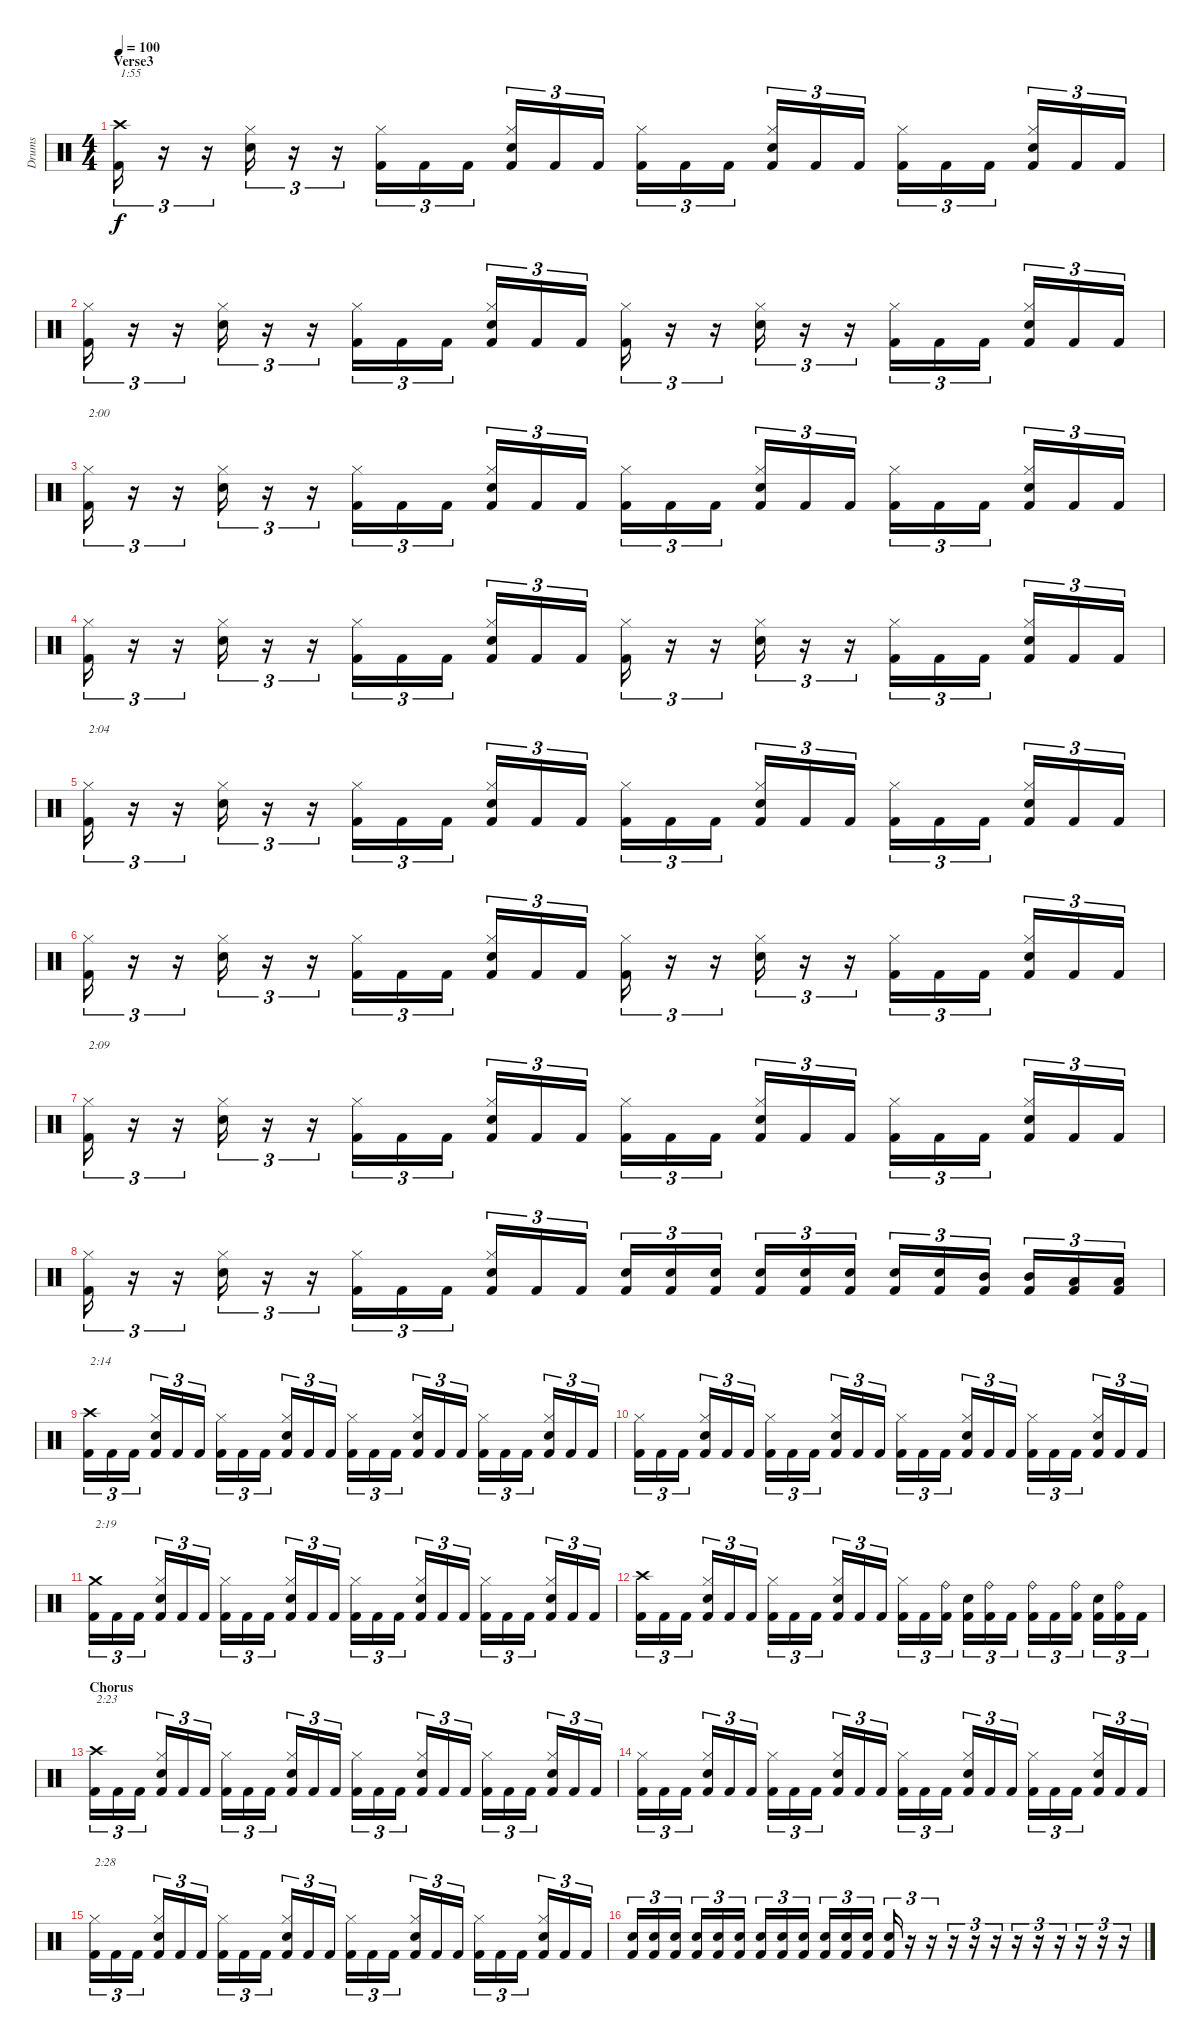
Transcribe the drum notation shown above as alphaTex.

\track ("Drums" "Drums") {instrument percussion}
\staff {score}
\articulation defaults
\ts (4 4)
\section ("" "Verse3")
\tempo 100
\clef neutral
\ks c
("Crash high (hit)" "Kick (hit) 2").16{tu (3 2) txt "1:55" dy f} r.16{tu (3 2)} r.16{tu (3 2)} ("Hi-Hat (closed)" "Snare (hit) 2").16{tu (3 2)} r.16{tu (3 2)} r.16{tu (3 2)} ("Hi-Hat (closed)" "Kick (hit) 2").16{tu (3 2)} "Kick (hit) 2".16{tu (3 2)} "Kick (hit) 2".16{tu (3 2)} ("Hi-Hat (closed)" "Snare (hit) 2" "Kick (hit) 2").16{tu (3 2)} "Kick (hit) 2".16{tu (3 2)} "Kick (hit) 2".16{tu (3 2)} ("Hi-Hat (closed)" "Kick (hit) 2").16{tu (3 2)} "Kick (hit) 2".16{tu (3 2)} "Kick (hit) 2".16{tu (3 2)} ("Hi-Hat (closed)" "Snare (hit) 2" "Kick (hit) 2").16{tu (3 2)} "Kick (hit) 2".16{tu (3 2)} "Kick (hit) 2".16{tu (3 2)} ("Hi-Hat (closed)" "Kick (hit) 2").16{tu (3 2)} "Kick (hit) 2".16{tu (3 2)} "Kick (hit) 2".16{tu (3 2)} ("Hi-Hat (closed)" "Snare (hit) 2" "Kick (hit) 2").16{tu (3 2)} "Kick (hit) 2".16{tu (3 2)} "Kick (hit) 2".16{tu (3 2)} |
("Hi-Hat (closed)" "Kick (hit) 2").16{tu (3 2)} r.16{tu (3 2)} r.16{tu (3 2)} ("Hi-Hat (closed)" "Snare (hit) 2").16{tu (3 2)} r.16{tu (3 2)} r.16{tu (3 2)} ("Hi-Hat (closed)" "Kick (hit) 2").16{tu (3 2)} "Kick (hit) 2".16{tu (3 2)} "Kick (hit) 2".16{tu (3 2)} ("Hi-Hat (closed)" "Snare (hit) 2" "Kick (hit) 2").16{tu (3 2)} "Kick (hit) 2".16{tu (3 2)} "Kick (hit) 2".16{tu (3 2)} ("Hi-Hat (closed)" "Kick (hit) 2").16{tu (3 2)} r.16{tu (3 2)} r.16{tu (3 2)} ("Hi-Hat (closed)" "Snare (hit) 2").16{tu (3 2)} r.16{tu (3 2)} r.16{tu (3 2)} ("Hi-Hat (closed)" "Kick (hit) 2").16{tu (3 2)} "Kick (hit) 2".16{tu (3 2)} "Kick (hit) 2".16{tu (3 2)} ("Hi-Hat (closed)" "Snare (hit) 2" "Kick (hit) 2").16{tu (3 2)} "Kick (hit) 2".16{tu (3 2)} "Kick (hit) 2".16{tu (3 2)} |
("Hi-Hat (closed)" "Kick (hit) 2").16{tu (3 2) txt "2:00"} r.16{tu (3 2)} r.16{tu (3 2)} ("Hi-Hat (closed)" "Snare (hit) 2").16{tu (3 2)} r.16{tu (3 2)} r.16{tu (3 2)} ("Hi-Hat (closed)" "Kick (hit) 2").16{tu (3 2)} "Kick (hit) 2".16{tu (3 2)} "Kick (hit) 2".16{tu (3 2)} ("Hi-Hat (closed)" "Snare (hit) 2" "Kick (hit) 2").16{tu (3 2)} "Kick (hit) 2".16{tu (3 2)} "Kick (hit) 2".16{tu (3 2)} ("Hi-Hat (closed)" "Kick (hit) 2").16{tu (3 2)} "Kick (hit) 2".16{tu (3 2)} "Kick (hit) 2".16{tu (3 2)} ("Hi-Hat (closed)" "Snare (hit) 2" "Kick (hit) 2").16{tu (3 2)} "Kick (hit) 2".16{tu (3 2)} "Kick (hit) 2".16{tu (3 2)} ("Hi-Hat (closed)" "Kick (hit) 2").16{tu (3 2)} "Kick (hit) 2".16{tu (3 2)} "Kick (hit) 2".16{tu (3 2)} ("Hi-Hat (closed)" "Snare (hit) 2" "Kick (hit) 2").16{tu (3 2)} "Kick (hit) 2".16{tu (3 2)} "Kick (hit) 2".16{tu (3 2)} |
("Hi-Hat (closed)" "Kick (hit) 2").16{tu (3 2)} r.16{tu (3 2)} r.16{tu (3 2)} ("Hi-Hat (closed)" "Snare (hit) 2").16{tu (3 2)} r.16{tu (3 2)} r.16{tu (3 2)} ("Hi-Hat (closed)" "Kick (hit) 2").16{tu (3 2)} "Kick (hit) 2".16{tu (3 2)} "Kick (hit) 2".16{tu (3 2)} ("Hi-Hat (closed)" "Snare (hit) 2" "Kick (hit) 2").16{tu (3 2)} "Kick (hit) 2".16{tu (3 2)} "Kick (hit) 2".16{tu (3 2)} ("Hi-Hat (closed)" "Kick (hit) 2").16{tu (3 2)} r.16{tu (3 2)} r.16{tu (3 2)} ("Hi-Hat (closed)" "Snare (hit) 2").16{tu (3 2)} r.16{tu (3 2)} r.16{tu (3 2)} ("Hi-Hat (closed)" "Kick (hit) 2").16{tu (3 2)} "Kick (hit) 2".16{tu (3 2)} "Kick (hit) 2".16{tu (3 2)} ("Hi-Hat (closed)" "Snare (hit) 2" "Kick (hit) 2").16{tu (3 2)} "Kick (hit) 2".16{tu (3 2)} "Kick (hit) 2".16{tu (3 2)} |
("Hi-Hat (closed)" "Kick (hit) 2").16{tu (3 2) txt "2:04"} r.16{tu (3 2)} r.16{tu (3 2)} ("Hi-Hat (closed)" "Snare (hit) 2").16{tu (3 2)} r.16{tu (3 2)} r.16{tu (3 2)} ("Hi-Hat (closed)" "Kick (hit) 2").16{tu (3 2)} "Kick (hit) 2".16{tu (3 2)} "Kick (hit) 2".16{tu (3 2)} ("Hi-Hat (closed)" "Snare (hit) 2" "Kick (hit) 2").16{tu (3 2)} "Kick (hit) 2".16{tu (3 2)} "Kick (hit) 2".16{tu (3 2)} ("Hi-Hat (closed)" "Kick (hit) 2").16{tu (3 2)} "Kick (hit) 2".16{tu (3 2)} "Kick (hit) 2".16{tu (3 2)} ("Hi-Hat (closed)" "Snare (hit) 2" "Kick (hit) 2").16{tu (3 2)} "Kick (hit) 2".16{tu (3 2)} "Kick (hit) 2".16{tu (3 2)} ("Hi-Hat (closed)" "Kick (hit) 2").16{tu (3 2)} "Kick (hit) 2".16{tu (3 2)} "Kick (hit) 2".16{tu (3 2)} ("Hi-Hat (closed)" "Snare (hit) 2" "Kick (hit) 2").16{tu (3 2)} "Kick (hit) 2".16{tu (3 2)} "Kick (hit) 2".16{tu (3 2)} |
("Hi-Hat (closed)" "Kick (hit) 2").16{tu (3 2)} r.16{tu (3 2)} r.16{tu (3 2)} ("Hi-Hat (closed)" "Snare (hit) 2").16{tu (3 2)} r.16{tu (3 2)} r.16{tu (3 2)} ("Hi-Hat (closed)" "Kick (hit) 2").16{tu (3 2)} "Kick (hit) 2".16{tu (3 2)} "Kick (hit) 2".16{tu (3 2)} ("Hi-Hat (closed)" "Snare (hit) 2" "Kick (hit) 2").16{tu (3 2)} "Kick (hit) 2".16{tu (3 2)} "Kick (hit) 2".16{tu (3 2)} ("Hi-Hat (closed)" "Kick (hit) 2").16{tu (3 2)} r.16{tu (3 2)} r.16{tu (3 2)} ("Hi-Hat (closed)" "Snare (hit) 2").16{tu (3 2)} r.16{tu (3 2)} r.16{tu (3 2)} ("Hi-Hat (closed)" "Kick (hit) 2").16{tu (3 2)} "Kick (hit) 2".16{tu (3 2)} "Kick (hit) 2".16{tu (3 2)} ("Hi-Hat (closed)" "Snare (hit) 2" "Kick (hit) 2").16{tu (3 2)} "Kick (hit) 2".16{tu (3 2)} "Kick (hit) 2".16{tu (3 2)} |
("Hi-Hat (closed)" "Kick (hit) 2").16{tu (3 2) txt "2:09"} r.16{tu (3 2)} r.16{tu (3 2)} ("Hi-Hat (closed)" "Snare (hit) 2").16{tu (3 2)} r.16{tu (3 2)} r.16{tu (3 2)} ("Hi-Hat (closed)" "Kick (hit) 2").16{tu (3 2)} "Kick (hit) 2".16{tu (3 2)} "Kick (hit) 2".16{tu (3 2)} ("Hi-Hat (closed)" "Snare (hit) 2" "Kick (hit) 2").16{tu (3 2)} "Kick (hit) 2".16{tu (3 2)} "Kick (hit) 2".16{tu (3 2)} ("Hi-Hat (closed)" "Kick (hit) 2").16{tu (3 2)} "Kick (hit) 2".16{tu (3 2)} "Kick (hit) 2".16{tu (3 2)} ("Hi-Hat (closed)" "Snare (hit) 2" "Kick (hit) 2").16{tu (3 2)} "Kick (hit) 2".16{tu (3 2)} "Kick (hit) 2".16{tu (3 2)} ("Hi-Hat (closed)" "Kick (hit) 2").16{tu (3 2)} "Kick (hit) 2".16{tu (3 2)} "Kick (hit) 2".16{tu (3 2)} ("Hi-Hat (closed)" "Snare (hit) 2" "Kick (hit) 2").16{tu (3 2)} "Kick (hit) 2".16{tu (3 2)} "Kick (hit) 2".16{tu (3 2)} |
("Hi-Hat (closed)" "Kick (hit) 2").16{tu (3 2)} r.16{tu (3 2)} r.16{tu (3 2)} ("Hi-Hat (closed)" "Snare (hit) 2").16{tu (3 2)} r.16{tu (3 2)} r.16{tu (3 2)} ("Hi-Hat (closed)" "Kick (hit) 2").16{tu (3 2)} "Kick (hit) 2".16{tu (3 2)} "Kick (hit) 2".16{tu (3 2)} ("Hi-Hat (closed)" "Snare (hit) 2" "Kick (hit) 2").16{tu (3 2)} "Kick (hit) 2".16{tu (3 2)} "Kick (hit) 2".16{tu (3 2)} ("Snare (hit) 2" "Kick (hit) 2").16{tu (3 2)} ("Snare (hit) 2" "Kick (hit) 2").16{tu (3 2)} ("Snare (hit) 2" "Kick (hit) 2").16{tu (3 2)} ("Snare (hit) 2" "Kick (hit) 2").16{tu (3 2)} ("Snare (hit) 2" "Kick (hit) 2").16{tu (3 2)} ("Snare (hit) 2" "Kick (hit) 2").16{tu (3 2)} ("Snare (hit) 2" "Kick (hit) 2").16{tu (3 2)} ("Snare (hit) 2" "Kick (hit) 2").16{tu (3 2)} ("Mid Tom (hit)" "Kick (hit) 2").16{tu (3 2)} ("Mid Tom (hit)" "Kick (hit) 2").16{tu (3 2)} ("Low Tom (hit)" "Kick (hit) 2").16{tu (3 2)} ("Low Tom (hit)" "Kick (hit) 2").16{tu (3 2)} |
("Crash high (hit)" "Kick (hit) 2").16{tu (3 2) txt "2:14"} "Kick (hit) 2".16{tu (3 2)} "Kick (hit) 2".16{tu (3 2)} ("Hi-Hat (closed)" "Snare (hit) 2" "Kick (hit) 2").16{tu (3 2)} "Kick (hit) 2".16{tu (3 2)} "Kick (hit) 2".16{tu (3 2)} ("Hi-Hat (closed)" "Kick (hit) 2").16{tu (3 2)} "Kick (hit) 2".16{tu (3 2)} "Kick (hit) 2".16{tu (3 2)} ("Hi-Hat (closed)" "Snare (hit) 2" "Kick (hit) 2").16{tu (3 2)} "Kick (hit) 2".16{tu (3 2)} "Kick (hit) 2".16{tu (3 2)} ("Hi-Hat (closed)" "Kick (hit) 2").16{tu (3 2)} "Kick (hit) 2".16{tu (3 2)} "Kick (hit) 2".16{tu (3 2)} ("Hi-Hat (closed)" "Snare (hit) 2" "Kick (hit) 2").16{tu (3 2)} "Kick (hit) 2".16{tu (3 2)} "Kick (hit) 2".16{tu (3 2)} ("Hi-Hat (closed)" "Kick (hit) 2").16{tu (3 2)} "Kick (hit) 2".16{tu (3 2)} "Kick (hit) 2".16{tu (3 2)} ("Hi-Hat (closed)" "Snare (hit) 2" "Kick (hit) 2").16{tu (3 2)} "Kick (hit) 2".16{tu (3 2)} "Kick (hit) 2".16{tu (3 2)} |
("Hi-Hat (closed)" "Kick (hit) 2").16{tu (3 2)} "Kick (hit) 2".16{tu (3 2)} "Kick (hit) 2".16{tu (3 2)} ("Hi-Hat (closed)" "Snare (hit) 2" "Kick (hit) 2").16{tu (3 2)} "Kick (hit) 2".16{tu (3 2)} "Kick (hit) 2".16{tu (3 2)} ("Hi-Hat (closed)" "Kick (hit) 2").16{tu (3 2)} "Kick (hit) 2".16{tu (3 2)} "Kick (hit) 2".16{tu (3 2)} ("Hi-Hat (closed)" "Snare (hit) 2" "Kick (hit) 2").16{tu (3 2)} "Kick (hit) 2".16{tu (3 2)} "Kick (hit) 2".16{tu (3 2)} ("Hi-Hat (closed)" "Kick (hit) 2").16{tu (3 2)} "Kick (hit) 2".16{tu (3 2)} "Kick (hit) 2".16{tu (3 2)} ("Hi-Hat (closed)" "Snare (hit) 2" "Kick (hit) 2").16{tu (3 2)} "Kick (hit) 2".16{tu (3 2)} "Kick (hit) 2".16{tu (3 2)} ("Hi-Hat (closed)" "Kick (hit) 2").16{tu (3 2)} "Kick (hit) 2".16{tu (3 2)} "Kick (hit) 2".16{tu (3 2)} ("Hi-Hat (closed)" "Snare (hit) 2" "Kick (hit) 2").16{tu (3 2)} "Kick (hit) 2".16{tu (3 2)} "Kick (hit) 2".16{tu (3 2)} |
("Crash medium (hit)" "Kick (hit) 2").16{tu (3 2) txt "2:19"} "Kick (hit) 2".16{tu (3 2)} "Kick (hit) 2".16{tu (3 2)} ("Hi-Hat (closed)" "Snare (hit) 2" "Kick (hit) 2").16{tu (3 2)} "Kick (hit) 2".16{tu (3 2)} "Kick (hit) 2".16{tu (3 2)} ("Hi-Hat (closed)" "Kick (hit) 2").16{tu (3 2)} "Kick (hit) 2".16{tu (3 2)} "Kick (hit) 2".16{tu (3 2)} ("Hi-Hat (closed)" "Snare (hit) 2" "Kick (hit) 2").16{tu (3 2)} "Kick (hit) 2".16{tu (3 2)} "Kick (hit) 2".16{tu (3 2)} ("Hi-Hat (closed)" "Kick (hit) 2").16{tu (3 2)} "Kick (hit) 2".16{tu (3 2)} "Kick (hit) 2".16{tu (3 2)} ("Hi-Hat (closed)" "Snare (hit) 2" "Kick (hit) 2").16{tu (3 2)} "Kick (hit) 2".16{tu (3 2)} "Kick (hit) 2".16{tu (3 2)} ("Hi-Hat (closed)" "Kick (hit) 2").16{tu (3 2)} "Kick (hit) 2".16{tu (3 2)} "Kick (hit) 2".16{tu (3 2)} ("Hi-Hat (closed)" "Snare (hit) 2" "Kick (hit) 2").16{tu (3 2)} "Kick (hit) 2".16{tu (3 2)} "Kick (hit) 2".16{tu (3 2)} |
("Crash high (hit)" "Kick (hit) 2").16{tu (3 2)} "Kick (hit) 2".16{tu (3 2)} "Kick (hit) 2".16{tu (3 2)} ("Hi-Hat (closed)" "Snare (hit) 2" "Kick (hit) 2").16{tu (3 2)} "Kick (hit) 2".16{tu (3 2)} "Kick (hit) 2".16{tu (3 2)} ("Hi-Hat (closed)" "Kick (hit) 2").16{tu (3 2)} "Kick (hit) 2".16{tu (3 2)} "Kick (hit) 2".16{tu (3 2)} ("Hi-Hat (closed)" "Snare (hit) 2" "Kick (hit) 2").16{tu (3 2)} "Kick (hit) 2".16{tu (3 2)} "Kick (hit) 2".16{tu (3 2)} ("Hi-Hat (closed)" "Kick (hit) 2").16{tu (3 2)} "Kick (hit) 2".16{tu (3 2)} ("Ride (bell)" "Kick (hit) 2").16{tu (3 2)} ("Snare (hit) 2" "Kick (hit) 2").16{tu (3 2)} ("Ride (bell)" "Kick (hit) 2").16{tu (3 2)} "Kick (hit) 2".16{tu (3 2)} ("Ride (bell)" "Kick (hit) 2").16{tu (3 2)} "Kick (hit) 2".16{tu (3 2)} ("Ride (bell)" "Kick (hit) 2").16{tu (3 2)} ("Snare (hit) 2" "Kick (hit) 2").16{tu (3 2)} ("Ride (bell)" "Kick (hit) 2").16{tu (3 2)} "Kick (hit) 2".16{tu (3 2)} |
\section ("" "Chorus")
("Crash high (hit)" "Kick (hit) 2").16{tu (3 2) txt "2:23"} "Kick (hit) 2".16{tu (3 2)} "Kick (hit) 2".16{tu (3 2)} ("Hi-Hat (closed)" "Snare (hit) 2" "Kick (hit) 2").16{tu (3 2)} "Kick (hit) 2".16{tu (3 2)} "Kick (hit) 2".16{tu (3 2)} ("Hi-Hat (closed)" "Kick (hit) 2").16{tu (3 2)} "Kick (hit) 2".16{tu (3 2)} "Kick (hit) 2".16{tu (3 2)} ("Hi-Hat (closed)" "Snare (hit) 2" "Kick (hit) 2").16{tu (3 2)} "Kick (hit) 2".16{tu (3 2)} "Kick (hit) 2".16{tu (3 2)} ("Hi-Hat (closed)" "Kick (hit) 2").16{tu (3 2)} "Kick (hit) 2".16{tu (3 2)} "Kick (hit) 2".16{tu (3 2)} ("Hi-Hat (closed)" "Snare (hit) 2" "Kick (hit) 2").16{tu (3 2)} "Kick (hit) 2".16{tu (3 2)} "Kick (hit) 2".16{tu (3 2)} ("Hi-Hat (closed)" "Kick (hit) 2").16{tu (3 2)} "Kick (hit) 2".16{tu (3 2)} "Kick (hit) 2".16{tu (3 2)} ("Hi-Hat (closed)" "Snare (hit) 2" "Kick (hit) 2").16{tu (3 2)} "Kick (hit) 2".16{tu (3 2)} "Kick (hit) 2".16{tu (3 2)} |
("Hi-Hat (closed)" "Kick (hit) 2").16{tu (3 2)} "Kick (hit) 2".16{tu (3 2)} "Kick (hit) 2".16{tu (3 2)} ("Hi-Hat (closed)" "Snare (hit) 2" "Kick (hit) 2").16{tu (3 2)} "Kick (hit) 2".16{tu (3 2)} "Kick (hit) 2".16{tu (3 2)} ("Hi-Hat (closed)" "Kick (hit) 2").16{tu (3 2)} "Kick (hit) 2".16{tu (3 2)} "Kick (hit) 2".16{tu (3 2)} ("Hi-Hat (closed)" "Snare (hit) 2" "Kick (hit) 2").16{tu (3 2)} "Kick (hit) 2".16{tu (3 2)} "Kick (hit) 2".16{tu (3 2)} ("Hi-Hat (closed)" "Kick (hit) 2").16{tu (3 2)} "Kick (hit) 2".16{tu (3 2)} "Kick (hit) 2".16{tu (3 2)} ("Hi-Hat (closed)" "Snare (hit) 2" "Kick (hit) 2").16{tu (3 2)} "Kick (hit) 2".16{tu (3 2)} "Kick (hit) 2".16{tu (3 2)} ("Hi-Hat (closed)" "Kick (hit) 2").16{tu (3 2)} "Kick (hit) 2".16{tu (3 2)} "Kick (hit) 2".16{tu (3 2)} ("Hi-Hat (closed)" "Snare (hit) 2" "Kick (hit) 2").16{tu (3 2)} "Kick (hit) 2".16{tu (3 2)} "Kick (hit) 2".16{tu (3 2)} |
("Hi-Hat (closed)" "Kick (hit) 2").16{tu (3 2) txt "2:28"} "Kick (hit) 2".16{tu (3 2)} "Kick (hit) 2".16{tu (3 2)} ("Hi-Hat (closed)" "Snare (hit) 2" "Kick (hit) 2").16{tu (3 2)} "Kick (hit) 2".16{tu (3 2)} "Kick (hit) 2".16{tu (3 2)} ("Hi-Hat (closed)" "Kick (hit) 2").16{tu (3 2)} "Kick (hit) 2".16{tu (3 2)} "Kick (hit) 2".16{tu (3 2)} ("Hi-Hat (closed)" "Snare (hit) 2" "Kick (hit) 2").16{tu (3 2)} "Kick (hit) 2".16{tu (3 2)} "Kick (hit) 2".16{tu (3 2)} ("Hi-Hat (closed)" "Kick (hit) 2").16{tu (3 2)} "Kick (hit) 2".16{tu (3 2)} "Kick (hit) 2".16{tu (3 2)} ("Hi-Hat (closed)" "Snare (hit) 2" "Kick (hit) 2").16{tu (3 2)} "Kick (hit) 2".16{tu (3 2)} "Kick (hit) 2".16{tu (3 2)} ("Hi-Hat (closed)" "Kick (hit) 2").16{tu (3 2)} "Kick (hit) 2".16{tu (3 2)} "Kick (hit) 2".16{tu (3 2)} ("Hi-Hat (closed)" "Snare (hit) 2" "Kick (hit) 2").16{tu (3 2)} "Kick (hit) 2".16{tu (3 2)} "Kick (hit) 2".16{tu (3 2)} |
("Snare (hit) 2" "Kick (hit) 2").16{tu (3 2)} ("Snare (hit) 2" "Kick (hit) 2").16{tu (3 2)} ("Snare (hit) 2" "Kick (hit) 2").16{tu (3 2)} ("Snare (hit) 2" "Kick (hit) 2").16{tu (3 2)} ("Snare (hit) 2" "Kick (hit) 2").16{tu (3 2)} ("Snare (hit) 2" "Kick (hit) 2").16{tu (3 2)} ("Snare (hit) 2" "Kick (hit) 2").16{tu (3 2)} ("Snare (hit) 2" "Kick (hit) 2").16{tu (3 2)} ("Snare (hit) 2" "Kick (hit) 2").16{tu (3 2)} ("Snare (hit) 2" "Kick (hit) 2").16{tu (3 2)} ("Snare (hit) 2" "Kick (hit) 2").16{tu (3 2)} ("Snare (hit) 2" "Kick (hit) 2").16{tu (3 2)} ("Snare (hit) 2" "Kick (hit) 2").16{tu (3 2)} r.16{tu (3 2)} r.16{tu (3 2)} r.16{tu (3 2)} r.16{tu (3 2)} r.16{tu (3 2)} r.16{tu (3 2)} r.16{tu (3 2)} r.16{tu (3 2)} r.16{tu (3 2)} r.16{tu (3 2)} r.16{tu (3 2)}
